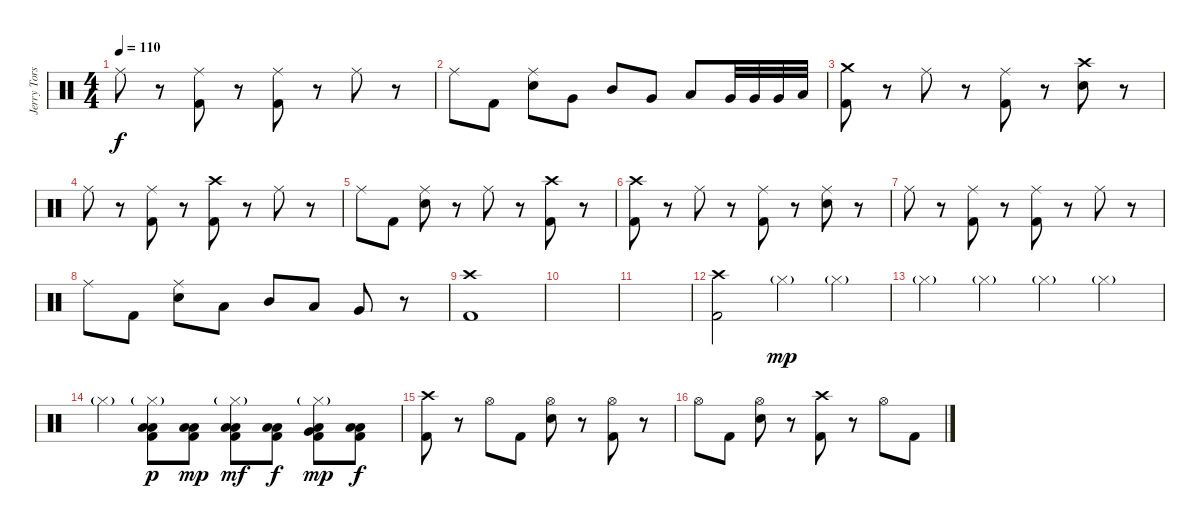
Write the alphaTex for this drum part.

\track ("Jerry Torstensson" "Jerry Tors") {instrument percussion}
\staff {score}
\articulation defaults
\ts (4 4)
\tempo 110
\clef neutral
\ks c "Ride (middle)".8{dy f}
r.8 ("Ride (middle)" "Kick (hit) 2").8 r.8 ("Ride (middle)" "Kick (hit) 2").8 r.8 "Ride (middle)".8 r.8 |
"Ride (middle)".8 "Kick (hit) 2".8 ("Ride (middle)" "Electric Snare (hit)").8 "Very Low Tom (hit)".8 "Mid Tom (hit)".8 "Very Low Tom (hit)".8 "Low Tom (hit)".8 "Very Low Tom (hit)".32 "Very Low Tom (hit)".32 "Very Low Tom (hit)".32 "Low Floor Tom (hit)".32 |
("Crash medium (hit)" "Kick (hit) 2").8 r.8 "Ride (middle)".8 r.8 ("Ride (middle)" "Kick (hit) 2").8 r.8 ("Crash high (hit)" "Electric Snare (hit)").8 r.8 |
"Ride (middle)".8 r.8 ("Ride (middle)" "Kick (hit) 2").8 r.8 ("Crash high (hit)" "Kick (hit) 2").8 r.8 "Ride (middle)".8 r.8 |
"Ride (middle)".8 "Kick (hit) 2".8 ("Ride (middle)" "Electric Snare (hit)").8 r.8 "Ride (middle)".8 r.8 ("Crash high (hit)" "Kick (hit) 2").8 r.8 |
("Crash high (hit)" "Kick (hit) 2").8 r.8 "Ride (middle)".8 r.8 ("Ride (middle)" "Kick (hit) 2").8 r.8 ("Ride (middle)" "Electric Snare (hit)").8 r.8 |
"Ride (middle)".8 r.8 ("Ride (middle)" "Kick (hit) 2").8 r.8 ("Ride (middle)" "Kick (hit) 2").8 r.8 "Ride (middle)".8 r.8 |
"Ride (middle)".8 "Kick (hit) 2".8 ("Ride (middle)" "Electric Snare (hit)").8 "Low Tom (hit)".8 "Mid Tom (hit)".8 "Low Tom (hit)".8 "Very Low Tom (hit)".8 r.8 |
("Crash high (hit)" "Kick (hit) 2").1 |
|
|
("Crash high (hit)" "Kick (hit) 2").2 "Hi-Hat (closed)"{g}.4{dy mp} "Hi-Hat (closed)"{g}.4 |
"Hi-Hat (closed)"{g}.4 "Hi-Hat (closed)"{g}.4 "Hi-Hat (closed)"{g}.4 "Hi-Hat (closed)"{g}.4 |
"Hi-Hat (closed)"{g}.4 ("Hi-Hat (closed)"{g} "Low Floor Tom (hit)" "Low Floor Tom (hit)" "Kick (hit) 2").8{dy p} ("Low Floor Tom (hit)" "Low Floor Tom (hit)" "Kick (hit) 2").8{dy mp} ("Hi-Hat (closed)"{g} "Low Floor Tom (hit)" "Low Floor Tom (hit)" "Kick (hit) 2").8{dy mf} ("Low Floor Tom (hit)" "Low Floor Tom (hit)" "Kick (hit) 2").8{dy f} ("Hi-Hat (closed)"{g} "Very Low Tom (hit)" "Low Floor Tom (hit)" "Kick (hit) 2").8{dy mp} ("Low Floor Tom (hit)" "Low Floor Tom (hit)" "Kick (hit) 2").8{dy f} |
("Crash high (hit)" "Kick (hit) 2").8 r.8 "Hi-Hat (open)".8 "Kick (hit) 2".8 ("Hi-Hat (open)" "Electric Snare (hit)").8 r.8 ("Hi-Hat (open)" "Kick (hit) 2").8 r.8 |
"Hi-Hat (open)".8 "Kick (hit) 2".8 ("Hi-Hat (open)" "Electric Snare (hit)").8 r.8 ("Crash high (hit)" "Kick (hit) 2").8 r.8 "Hi-Hat (open)".8 "Kick (hit) 2".8
